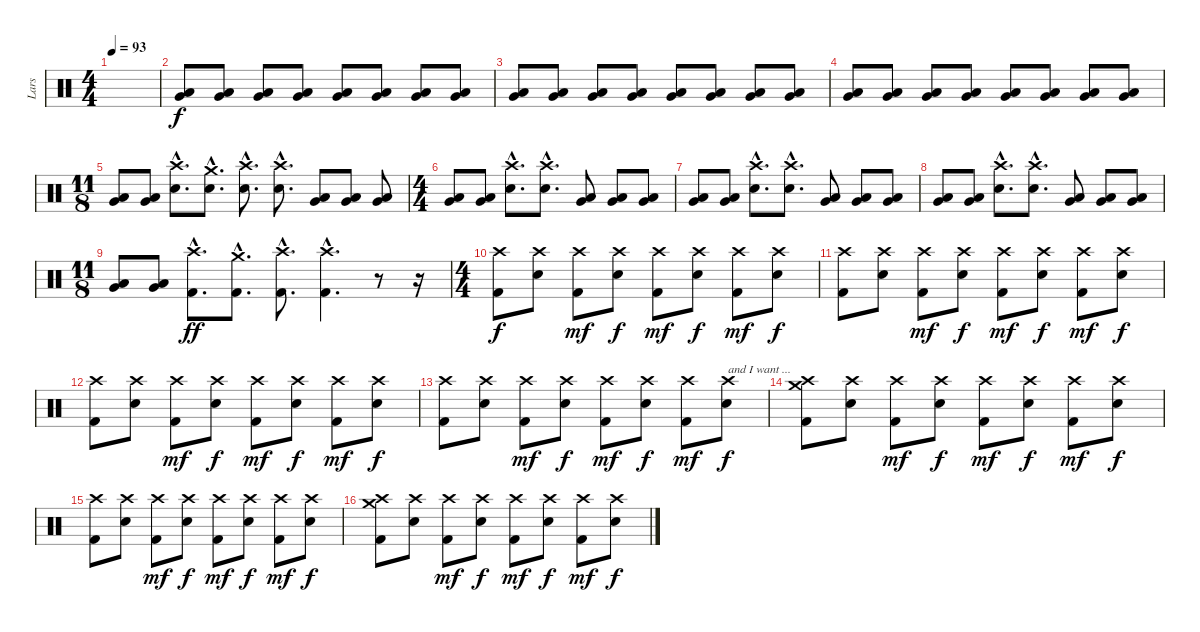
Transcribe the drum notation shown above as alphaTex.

\track ("Lars" "Lars") {instrument percussion}
\staff {score}
\articulation defaults
\ts (4 4)
\tempo 93
\clef neutral
\ks c
|
("Very Low Tom (hit)" "Low Floor Tom (hit)").8 ("Very Low Tom (hit)" "Low Floor Tom (hit)").8 ("Very Low Tom (hit)" "Low Floor Tom (hit)").8 ("Very Low Tom (hit)" "Low Floor Tom (hit)").8 ("Very Low Tom (hit)" "Low Floor Tom (hit)").8 ("Very Low Tom (hit)" "Low Floor Tom (hit)").8 ("Very Low Tom (hit)" "Low Floor Tom (hit)").8 ("Very Low Tom (hit)" "Low Floor Tom (hit)").8 |
("Very Low Tom (hit)" "Low Floor Tom (hit)").8 ("Very Low Tom (hit)" "Low Floor Tom (hit)").8 ("Very Low Tom (hit)" "Low Floor Tom (hit)").8 ("Very Low Tom (hit)" "Low Floor Tom (hit)").8 ("Very Low Tom (hit)" "Low Floor Tom (hit)").8 ("Very Low Tom (hit)" "Low Floor Tom (hit)").8 ("Very Low Tom (hit)" "Low Floor Tom (hit)").8 ("Very Low Tom (hit)" "Low Floor Tom (hit)").8 |
("Very Low Tom (hit)" "Low Floor Tom (hit)").8 ("Very Low Tom (hit)" "Low Floor Tom (hit)").8 ("Very Low Tom (hit)" "Low Floor Tom (hit)").8 ("Very Low Tom (hit)" "Low Floor Tom (hit)").8 ("Very Low Tom (hit)" "Low Floor Tom (hit)").8 ("Very Low Tom (hit)" "Low Floor Tom (hit)").8 ("Very Low Tom (hit)" "Low Floor Tom (hit)").8 ("Very Low Tom (hit)" "Low Floor Tom (hit)").8 |
\ts (11 8)
("Very Low Tom (hit)" "Low Floor Tom (hit)").8 ("Very Low Tom (hit)" "Low Floor Tom (hit)").8 ("Crash high (hit)"{hac} "Snare (hit) 2"{hac}).8{d} ("Crash medium (hit)"{hac} "Snare (hit) 2"{hac}).8{d} ("Crash high (hit)"{hac} "Snare (hit) 2"{hac}).8{d} ("Crash high (hit)"{hac} "Snare (hit) 2"{hac}).8{d} ("Very Low Tom (hit)" "Low Floor Tom (hit)").8 ("Very Low Tom (hit)" "Low Floor Tom (hit)").8 ("Very Low Tom (hit)" "Low Floor Tom (hit)").8 |
\ts (4 4)
("Very Low Tom (hit)" "Low Floor Tom (hit)").8 ("Very Low Tom (hit)" "Low Floor Tom (hit)").8 ("Crash high (hit)"{hac} "Snare (hit) 2"{hac}).8{d} ("Crash high (hit)"{hac} "Snare (hit) 2"{hac}).8{d} ("Very Low Tom (hit)" "Low Floor Tom (hit)").8 ("Very Low Tom (hit)" "Low Floor Tom (hit)").8 ("Very Low Tom (hit)" "Low Floor Tom (hit)").8 |
("Very Low Tom (hit)" "Low Floor Tom (hit)").8 ("Very Low Tom (hit)" "Low Floor Tom (hit)").8 ("Crash high (hit)"{hac} "Snare (hit) 2"{hac}).8{d} ("Crash high (hit)"{hac} "Snare (hit) 2"{hac}).8{d} ("Very Low Tom (hit)" "Low Floor Tom (hit)").8 ("Very Low Tom (hit)" "Low Floor Tom (hit)").8 ("Very Low Tom (hit)" "Low Floor Tom (hit)").8 |
("Very Low Tom (hit)" "Low Floor Tom (hit)").8 ("Very Low Tom (hit)" "Low Floor Tom (hit)").8 ("Crash high (hit)"{hac} "Snare (hit) 2"{hac}).8{d} ("Crash high (hit)"{hac} "Snare (hit) 2"{hac}).8{d} ("Very Low Tom (hit)" "Low Floor Tom (hit)").8 ("Very Low Tom (hit)" "Low Floor Tom (hit)").8 ("Very Low Tom (hit)" "Low Floor Tom (hit)").8 |
\ts (11 8)
("Very Low Tom (hit)" "Low Floor Tom (hit)").8 ("Very Low Tom (hit)" "Low Floor Tom (hit)").8 ("Crash high (hit)"{hac} "Kick (hit) 2"{hac}).8{d dy ff} ("Crash medium (hit)"{hac} "Kick (hit) 2"{hac}).8{d} ("Crash high (hit)"{hac} "Kick (hit) 2"{hac}).8{d} ("Crash high (hit)"{hac} "Kick (hit) 2"{hac}).4{d} r.8 r.16 |
\ts (4 4)
("Crash high (hit)" "Kick (hit) 2").8{dy f} ("Crash high (hit)" "Snare (hit) 2").8 ("Crash high (hit)" "Kick (hit) 2").8{dy mf} ("Crash high (hit)" "Snare (hit) 2").8{dy f} ("Crash high (hit)" "Kick (hit) 2").8{dy mf} ("Crash high (hit)" "Snare (hit) 2").8{dy f} ("Crash high (hit)" "Kick (hit) 2").8{dy mf} ("Crash high (hit)" "Snare (hit) 2").8{dy f} |
("Crash high (hit)" "Kick (hit) 2").8 ("Crash high (hit)" "Snare (hit) 2").8 ("Crash high (hit)" "Kick (hit) 2").8{dy mf} ("Crash high (hit)" "Snare (hit) 2").8{dy f} ("Crash high (hit)" "Kick (hit) 2").8{dy mf} ("Crash high (hit)" "Snare (hit) 2").8{dy f} ("Crash high (hit)" "Kick (hit) 2").8{dy mf} ("Crash high (hit)" "Snare (hit) 2").8{dy f} |
("Crash high (hit)" "Kick (hit) 2").8 ("Crash high (hit)" "Snare (hit) 2").8 ("Crash high (hit)" "Kick (hit) 2").8{dy mf} ("Crash high (hit)" "Snare (hit) 2").8{dy f} ("Crash high (hit)" "Kick (hit) 2").8{dy mf} ("Crash high (hit)" "Snare (hit) 2").8{dy f} ("Crash high (hit)" "Kick (hit) 2").8{dy mf} ("Crash high (hit)" "Snare (hit) 2").8{dy f} |
("Crash high (hit)" "Kick (hit) 2").8 ("Crash high (hit)" "Snare (hit) 2").8 ("Crash high (hit)" "Kick (hit) 2").8{dy mf} ("Crash high (hit)" "Snare (hit) 2").8{dy f} ("Crash high (hit)" "Kick (hit) 2").8{dy mf} ("Crash high (hit)" "Snare (hit) 2").8{dy f} ("Crash high (hit)" "Kick (hit) 2").8{dy mf} ("Crash high (hit)" "Snare (hit) 2").8{txt "and I want ..." dy f} |
("Crash high (hit)" "Crash medium (hit)" "Kick (hit) 2").8 ("Crash high (hit)" "Snare (hit) 2").8 ("Crash high (hit)" "Kick (hit) 2").8{dy mf} ("Crash high (hit)" "Snare (hit) 2").8{dy f} ("Crash high (hit)" "Kick (hit) 2").8{dy mf} ("Crash high (hit)" "Snare (hit) 2").8{dy f} ("Crash high (hit)" "Kick (hit) 2").8{dy mf} ("Crash high (hit)" "Snare (hit) 2").8{dy f} |
("Crash high (hit)" "Kick (hit) 2").8 ("Crash high (hit)" "Snare (hit) 2").8 ("Crash high (hit)" "Kick (hit) 2").8{dy mf} ("Crash high (hit)" "Snare (hit) 2").8{dy f} ("Crash high (hit)" "Kick (hit) 2").8{dy mf} ("Crash high (hit)" "Snare (hit) 2").8{dy f} ("Crash high (hit)" "Kick (hit) 2").8{dy mf} ("Crash high (hit)" "Snare (hit) 2").8{dy f} |
("Crash high (hit)" "Crash medium (hit)" "Kick (hit) 2").8 ("Crash high (hit)" "Snare (hit) 2").8 ("Crash high (hit)" "Kick (hit) 2").8{dy mf} ("Crash high (hit)" "Snare (hit) 2").8{dy f} ("Crash high (hit)" "Kick (hit) 2").8{dy mf} ("Crash high (hit)" "Snare (hit) 2").8{dy f} ("Crash high (hit)" "Kick (hit) 2").8{dy mf} ("Crash high (hit)" "Snare (hit) 2").8{dy f}
